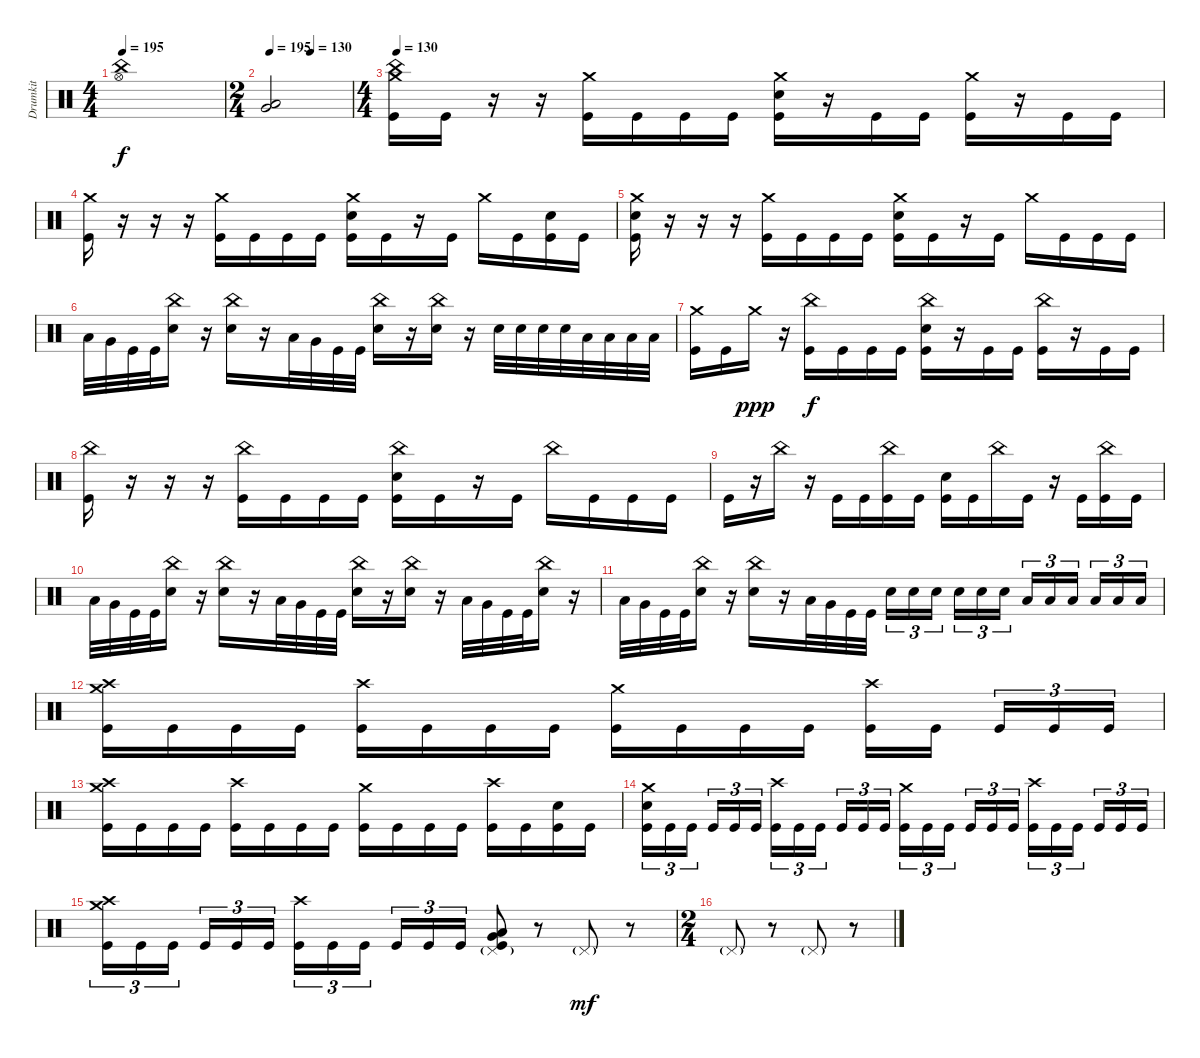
\track ("Drumkit" "Drumkit") {instrument percussion}
\staff {score}
\articulation defaults
\ts (4 4)
\tempo 195
\clef neutral
\ks c
("China (hit)" "Hi-Hat (open)").1{dy f} |
\ts (2 4)
\tempo 195
\tempo (130 0.5)
("Low Tom (hit)" "Very Low Tom (hit)").2 |
\ts (4 4)
\tempo 130
("Crash medium (hit)" "China (hit)" "Kick (hit)").16 "Kick (hit)".16 r.16 r.16 ("Crash medium (hit)" "Kick (hit)").16 "Kick (hit)".16 "Kick (hit)".16 "Kick (hit)".16 ("Crash medium (hit)" "Snare (hit) 2" "Kick (hit)").16 r.16 "Kick (hit)".16 "Kick (hit)".16 ("Crash medium (hit)" "Kick (hit)").16 r.16 "Kick (hit)".16 "Kick (hit)".16 |
("Crash medium (hit)" "Kick (hit)").16 r.16 r.16 r.16 ("Crash medium (hit)" "Kick (hit)").16 "Kick (hit)".16 "Kick (hit)".16 "Kick (hit)".16 ("Crash medium (hit)" "Snare (hit) 2" "Kick (hit)").16 "Kick (hit)".16 r.16 "Kick (hit)".16 "Crash medium (hit)".16 "Kick (hit)".16 ("Snare (hit) 2" "Kick (hit)").16 "Kick (hit)".16 |
("Crash medium (hit)" "Snare (hit) 2" "Kick (hit)").16 r.16 r.16 r.16 ("Crash medium (hit)" "Kick (hit)").16 "Kick (hit)".16 "Kick (hit)".16 "Kick (hit)".16 ("Crash medium (hit)" "Snare (hit) 2" "Kick (hit)").16 "Kick (hit)".16 r.16 "Kick (hit)".16 "Crash medium (hit)".16 "Kick (hit)".16 "Kick (hit)".16 "Kick (hit)".16 |
"Low Tom (hit)".32 "Very Low Tom (hit)".32 "Kick (hit)".32 "Kick (hit)".32 ("China (hit)" "Snare (hit) 2").16 r.16 ("China (hit)" "Snare (hit) 2").16 r.16 "Low Tom (hit)".32 "Very Low Tom (hit)".32 "Kick (hit)".32 "Kick (hit)".32 ("China (hit)" "Snare (hit) 2").16 r.16 ("China (hit)" "Snare (hit) 2").16 r.16 "Snare (hit) 2".32 "Snare (hit) 2".32 "Snare (hit) 2".32 "Snare (hit) 2".32 "Low Tom (hit)".32 "Low Tom (hit)".32 "Low Tom (hit)".32 "Low Tom (hit)".32 |
("Crash medium (hit)" "Kick (hit)").16 "Kick (hit)".16 "Crash medium (hit)".16{dy ppp} r.16 ("China (hit)" "Kick (hit)").16{dy f} "Kick (hit)".16 "Kick (hit)".16 "Kick (hit)".16 ("China (hit)" "Snare (hit) 2" "Kick (hit)").16 r.16 "Kick (hit)".16 "Kick (hit)".16 ("China (hit)" "Kick (hit)").16 r.16 "Kick (hit)".16 "Kick (hit)".16 |
("China (hit)" "Kick (hit)").16 r.16 r.16 r.16 ("China (hit)" "Kick (hit)").16 "Kick (hit)".16 "Kick (hit)".16 "Kick (hit)".16 ("China (hit)" "Snare (hit) 2" "Kick (hit)").16 "Kick (hit)".16 r.16 "Kick (hit)".16 "China (hit)".16 "Kick (hit)".16 "Kick (hit)".16 "Kick (hit)".16 |
"Kick (hit)".16 r.16 "China (hit)".16 r.16 "Kick (hit)".16 "Kick (hit)".16 ("China (hit)" "Kick (hit)").16 "Kick (hit)".16 ("Snare (hit) 2" "Kick (hit)").16 "Kick (hit)".16 "China (hit)".16 "Kick (hit)".16 r.16 "Kick (hit)".16 ("China (hit)" "Kick (hit)").16 "Kick (hit)".16 |
"Low Tom (hit)".32 "Very Low Tom (hit)".32 "Kick (hit)".32 "Kick (hit)".32 ("China (hit)" "Snare (hit) 2").16 r.16 ("China (hit)" "Snare (hit) 2").16 r.16 "Low Tom (hit)".32 "Very Low Tom (hit)".32 "Kick (hit)".32 "Kick (hit)".32 ("China (hit)" "Snare (hit) 2").16 r.16 ("China (hit)" "Snare (hit) 2").16 r.16 "Low Tom (hit)".32 "Very Low Tom (hit)".32 "Kick (hit)".32 "Kick (hit)".32 ("China (hit)" "Snare (hit) 2").16 r.16 |
"Low Tom (hit)".32 "Very Low Tom (hit)".32 "Kick (hit)".32 "Kick (hit)".32 ("China (hit)" "Snare (hit) 2").16 r.16 ("China (hit)" "Snare (hit) 2").16 r.16 "Low Tom (hit)".32 "Very Low Tom (hit)".32 "Kick (hit)".32 "Kick (hit)".32 "Snare (hit) 2".16{tu (3 2)} "Snare (hit) 2".16{tu (3 2)} "Snare (hit) 2".16{tu (3 2)} "Snare (hit) 2".16{tu (3 2)} "Snare (hit) 2".16{tu (3 2)} "Snare (hit) 2".16{tu (3 2)} "Low Tom (hit)".16{tu (3 2)} "Low Tom (hit)".16{tu (3 2)} "Low Tom (hit)".16{tu (3 2)} "Low Tom (hit)".16{tu (3 2)} "Low Tom (hit)".16{tu (3 2)} "Low Tom (hit)".16{tu (3 2)} |
("Crash medium (hit)" "Crash high (hit)" "Kick (hit)").16 "Kick (hit)".16 "Kick (hit)".16 "Kick (hit)".16 ("Crash high (hit)" "Kick (hit)").16 "Kick (hit)".16 "Kick (hit)".16 "Kick (hit)".16 ("Crash medium (hit)" "Kick (hit)").16 "Kick (hit)".16 "Kick (hit)".16 "Kick (hit)".16 ("Crash high (hit)" "Kick (hit)").16 "Kick (hit)".16 "Kick (hit)".16{tu (3 2)} "Kick (hit)".16{tu (3 2)} "Kick (hit)".16{tu (3 2)} |
("Crash medium (hit)" "Crash high (hit)" "Kick (hit)").16 "Kick (hit)".16 "Kick (hit)".16 "Kick (hit)".16 ("Crash high (hit)" "Kick (hit)").16 "Kick (hit)".16 "Kick (hit)".16 "Kick (hit)".16 ("Crash medium (hit)" "Kick (hit)").16 "Kick (hit)".16 "Kick (hit)".16 "Kick (hit)".16 ("Crash high (hit)" "Kick (hit)").16 "Kick (hit)".16 ("Snare (hit) 2" "Kick (hit)").16 "Kick (hit)".16 |
("Crash medium (hit)" "Snare (hit) 2" "Kick (hit)").16{tu (3 2)} "Kick (hit)".16{tu (3 2)} "Kick (hit)".16{tu (3 2)} "Kick (hit)".16{tu (3 2)} "Kick (hit)".16{tu (3 2)} "Kick (hit)".16{tu (3 2)} ("Crash high (hit)" "Kick (hit)").16{tu (3 2)} "Kick (hit)".16{tu (3 2)} "Kick (hit)".16{tu (3 2)} "Kick (hit)".16{tu (3 2)} "Kick (hit)".16{tu (3 2)} "Kick (hit)".16{tu (3 2)} ("Crash medium (hit)" "Kick (hit)").16{tu (3 2)} "Kick (hit)".16{tu (3 2)} "Kick (hit)".16{tu (3 2)} "Kick (hit)".16{tu (3 2)} "Kick (hit)".16{tu (3 2)} "Kick (hit)".16{tu (3 2)} ("Crash high (hit)" "Kick (hit)").16{tu (3 2)} "Kick (hit)".16{tu (3 2)} "Kick (hit)".16{tu (3 2)} "Kick (hit)".16{tu (3 2)} "Kick (hit)".16{tu (3 2)} "Kick (hit)".16{tu (3 2)} |
("Crash medium (hit)" "Crash high (hit)" "Kick (hit)").16{tu (3 2)} "Kick (hit)".16{tu (3 2)} "Kick (hit)".16{tu (3 2)} "Kick (hit)".16{tu (3 2)} "Kick (hit)".16{tu (3 2)} "Kick (hit)".16{tu (3 2)} ("Crash high (hit)" "Kick (hit)").16{tu (3 2)} "Kick (hit)".16{tu (3 2)} "Kick (hit)".16{tu (3 2)} "Kick (hit)".16{tu (3 2)} "Kick (hit)".16{tu (3 2)} "Kick (hit)".16{tu (3 2)} ("Pedal Hi-Hat (hit)"{g} "Low Tom (hit)" "Very Low Tom (hit)" "Kick (hit)").8 r.8 "Pedal Hi-Hat (hit)"{g}.8{dy mf} r.8 |
\ts (2 4)
"Pedal Hi-Hat (hit)"{g}.8 r.8 "Pedal Hi-Hat (hit)"{g}.8 r.8
